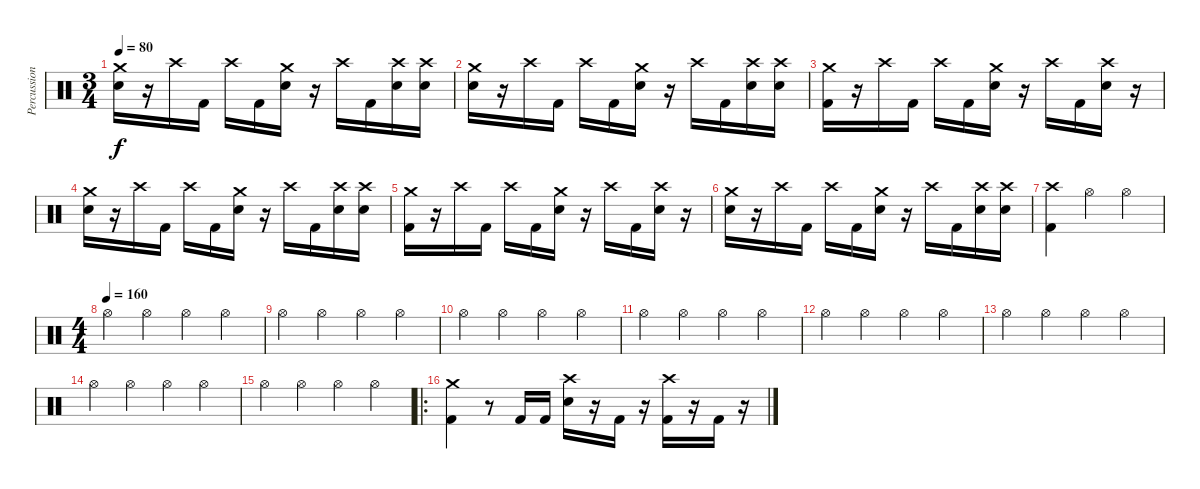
\track ("Percussion" "Percussion") {instrument percussion}
\staff {score}
\articulation defaults
\ts (3 4)
\tempo 80
\clef neutral
\ks c
("Crash medium (hit)" "Electric Snare (hit)").16{dy f} r.16 "Crash high (hit)".16 "Kick (hit) 2".16 "Crash high (hit)".16 "Kick (hit) 2".16 ("Crash medium (hit)" "Electric Snare (hit)").16 r.16 "Crash high (hit)".16 "Kick (hit) 2".16 ("Crash high (hit)" "Electric Snare (hit)").16 ("Crash high (hit)" "Electric Snare (hit)").16 |
("Crash medium (hit)" "Electric Snare (hit)").16 r.16 "Crash high (hit)".16 "Kick (hit) 2".16 "Crash high (hit)".16 "Kick (hit) 2".16 ("Crash medium (hit)" "Electric Snare (hit)").16 r.16 "Crash high (hit)".16 "Kick (hit) 2".16 ("Crash high (hit)" "Electric Snare (hit)").16 ("Crash high (hit)" "Electric Snare (hit)").16 |
("Crash medium (hit)" "Kick (hit) 2").16 r.16 "Crash high (hit)".16 "Kick (hit) 2".16 "Crash high (hit)".16 "Kick (hit) 2".16 ("Crash medium (hit)" "Electric Snare (hit)").16 r.16 "Crash high (hit)".16 "Kick (hit) 2".16 ("Crash high (hit)" "Electric Snare (hit)").16 r.16 |
("Crash medium (hit)" "Electric Snare (hit)").16 r.16 "Crash high (hit)".16 "Kick (hit) 2".16 "Crash high (hit)".16 "Kick (hit) 2".16 ("Crash medium (hit)" "Electric Snare (hit)").16 r.16 "Crash high (hit)".16 "Kick (hit) 2".16 ("Crash high (hit)" "Electric Snare (hit)").16 ("Crash high (hit)" "Electric Snare (hit)").16 |
("Crash medium (hit)" "Kick (hit) 2").16 r.16 "Crash high (hit)".16 "Kick (hit) 2".16 "Crash high (hit)".16 "Kick (hit) 2".16 ("Crash medium (hit)" "Electric Snare (hit)").16 r.16 "Crash high (hit)".16 "Kick (hit) 2".16 ("Crash high (hit)" "Electric Snare (hit)").16 r.16 |
("Crash medium (hit)" "Electric Snare (hit)").16 r.16 "Crash high (hit)".16 "Kick (hit) 2".16 "Crash high (hit)".16 "Kick (hit) 2".16 ("Crash medium (hit)" "Electric Snare (hit)").16 r.16 "Crash high (hit)".16 "Kick (hit) 2".16 ("Crash high (hit)" "Electric Snare (hit)").16 ("Crash high (hit)" "Electric Snare (hit)").16 |
("Kick (hit) 2" "Crash high (hit)").4 "Hi-Hat (open)".4 "Hi-Hat (open)".4 |
\ts (4 4)
\tempo (160)
"Hi-Hat (open)".4 "Hi-Hat (open)".4 "Hi-Hat (open)".4 "Hi-Hat (open)".4 |
"Hi-Hat (open)".4 "Hi-Hat (open)".4 "Hi-Hat (open)".4 "Hi-Hat (open)".4 |
"Hi-Hat (open)".4 "Hi-Hat (open)".4 "Hi-Hat (open)".4 "Hi-Hat (open)".4 |
"Hi-Hat (open)".4 "Hi-Hat (open)".4 "Hi-Hat (open)".4 "Hi-Hat (open)".4 |
"Hi-Hat (open)".4 "Hi-Hat (open)".4 "Hi-Hat (open)".4 "Hi-Hat (open)".4 |
"Hi-Hat (open)".4 "Hi-Hat (open)".4 "Hi-Hat (open)".4 "Hi-Hat (open)".4 |
"Hi-Hat (open)".4 "Hi-Hat (open)".4 "Hi-Hat (open)".4 "Hi-Hat (open)".4 |
"Hi-Hat (open)".4 "Hi-Hat (open)".4 "Hi-Hat (open)".4 "Hi-Hat (open)".4 |
\ro
("Kick (hit) 2" "Crash medium (hit)").4 r.8 "Kick (hit) 2".16 "Kick (hit) 2".16 ("Crash high (hit)" "Electric Snare (hit)").16 r.16 "Kick (hit) 2".16 r.16 ("Kick (hit) 2" "Crash high (hit)").16 r.16 "Kick (hit) 2".16 r.16
